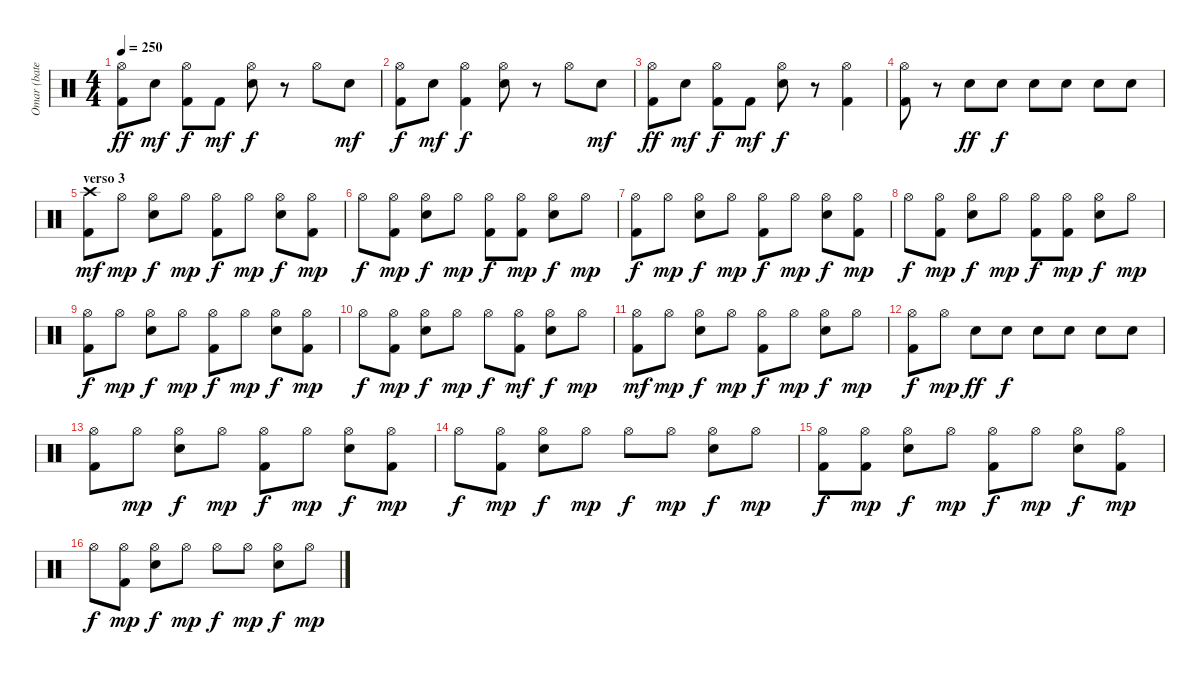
\track ("Omar (batería)" "Omar (bate") {instrument percussion}
\staff {score}
\articulation defaults
\ts (4 4)
\tempo 250
\clef neutral
\ks c
("Hi-Hat (open)" "Kick (hit) 2").8{dy ff} "Snare (hit) 2".8{dy mf} ("Hi-Hat (open)" "Kick (hit) 2").8{dy f} "Kick (hit) 2".8{dy mf} ("Hi-Hat (open)" "Snare (hit) 2").8{dy f} r.8 "Hi-Hat (open)".8 "Snare (hit) 2".8{dy mf} |
("Hi-Hat (open)" "Kick (hit) 2").8{dy f} "Snare (hit) 2".8{dy mf} ("Hi-Hat (open)" "Kick (hit) 2").4{dy f} ("Hi-Hat (open)" "Snare (hit) 2").8 r.8 "Hi-Hat (open)".8 "Snare (hit) 2".8{dy mf} |
("Hi-Hat (open)" "Kick (hit) 2").8{dy ff} "Snare (hit) 2".8{dy mf} ("Hi-Hat (open)" "Kick (hit) 2").8{dy f} "Kick (hit) 2".8{dy mf} ("Hi-Hat (open)" "Snare (hit) 2").8{dy f} r.8 ("Hi-Hat (open)" "Kick (hit) 2").4 |
("Hi-Hat (open)" "Kick (hit) 2").8 r.8 "Snare (hit) 2".8{dy ff} "Snare (hit) 2".8{dy f} "Snare (hit) 2".8 "Snare (hit) 2".8 "Snare (hit) 2".8 "Snare (hit) 2".8 |
\section ("" "verso 3")
("Crash high (hit)" "Kick (hit) 2").8{dy mf} "Hi-Hat (open)".8{dy mp} ("Hi-Hat (open)" "Snare (hit) 2").8{dy f} "Hi-Hat (open)".8{dy mp} ("Hi-Hat (open)" "Kick (hit) 2").8{dy f} "Hi-Hat (open)".8{dy mp} ("Hi-Hat (open)" "Snare (hit) 2").8{dy f} ("Hi-Hat (open)" "Kick (hit) 2").8{dy mp} |
"Hi-Hat (open)".8{dy f} ("Hi-Hat (open)" "Kick (hit) 2").8{dy mp} ("Hi-Hat (open)" "Snare (hit) 2").8{dy f} "Hi-Hat (open)".8{dy mp} ("Hi-Hat (open)" "Kick (hit) 2").8{dy f} ("Hi-Hat (open)" "Kick (hit) 2").8{dy mp} ("Hi-Hat (open)" "Snare (hit) 2").8{dy f} "Hi-Hat (open)".8{dy mp} |
("Hi-Hat (open)" "Kick (hit) 2").8{dy f} "Hi-Hat (open)".8{dy mp} ("Hi-Hat (open)" "Snare (hit) 2").8{dy f} "Hi-Hat (open)".8{dy mp} ("Hi-Hat (open)" "Kick (hit) 2").8{dy f} "Hi-Hat (open)".8{dy mp} ("Hi-Hat (open)" "Snare (hit) 2").8{dy f} ("Hi-Hat (open)" "Kick (hit) 2").8{dy mp} |
"Hi-Hat (open)".8{dy f} ("Hi-Hat (open)" "Kick (hit) 2").8{dy mp} ("Hi-Hat (open)" "Snare (hit) 2").8{dy f} "Hi-Hat (open)".8{dy mp} ("Hi-Hat (open)" "Kick (hit) 2").8{dy f} ("Hi-Hat (open)" "Kick (hit) 2").8{dy mp} ("Hi-Hat (open)" "Snare (hit) 2").8{dy f} "Hi-Hat (open)".8{dy mp} |
("Hi-Hat (open)" "Kick (hit) 2").8{dy f} "Hi-Hat (open)".8{dy mp} ("Hi-Hat (open)" "Snare (hit) 2").8{dy f} "Hi-Hat (open)".8{dy mp} ("Hi-Hat (open)" "Kick (hit) 2").8{dy f} "Hi-Hat (open)".8{dy mp} ("Hi-Hat (open)" "Snare (hit) 2").8{dy f} ("Hi-Hat (open)" "Kick (hit) 2").8{dy mp} |
"Hi-Hat (open)".8{dy f} ("Hi-Hat (open)" "Kick (hit) 2").8{dy mp} ("Hi-Hat (open)" "Snare (hit) 2").8{dy f} "Hi-Hat (open)".8{dy mp} "Hi-Hat (open)".8{dy f} ("Hi-Hat (open)" "Kick (hit) 2").8{dy mf} ("Hi-Hat (open)" "Snare (hit) 2").8{dy f} "Hi-Hat (open)".8{dy mp} |
("Hi-Hat (open)" "Kick (hit) 2").8{dy mf} "Hi-Hat (open)".8{dy mp} ("Hi-Hat (open)" "Snare (hit) 2").8{dy f} "Hi-Hat (open)".8{dy mp} ("Hi-Hat (open)" "Kick (hit) 2").8{dy f} "Hi-Hat (open)".8{dy mp} ("Hi-Hat (open)" "Snare (hit) 2").8{dy f} "Hi-Hat (open)".8{dy mp} |
("Hi-Hat (open)" "Kick (hit) 2").8{dy f} "Hi-Hat (open)".8{dy mp} "Snare (hit) 2".8{dy ff} "Snare (hit) 2".8{dy f} "Snare (hit) 2".8 "Snare (hit) 2".8 "Snare (hit) 2".8 "Snare (hit) 2".8 |
\section ("" "")
("Hi-Hat (open)" "Kick (hit) 2").8 "Hi-Hat (open)".8{dy mp} ("Hi-Hat (open)" "Snare (hit) 2").8{dy f} "Hi-Hat (open)".8{dy mp} ("Hi-Hat (open)" "Kick (hit) 2").8{dy f} "Hi-Hat (open)".8{dy mp} ("Hi-Hat (open)" "Snare (hit) 2").8{dy f} ("Hi-Hat (open)" "Kick (hit) 2").8{dy mp} |
"Hi-Hat (open)".8{dy f} ("Hi-Hat (open)" "Kick (hit) 2").8{dy mp} ("Hi-Hat (open)" "Snare (hit) 2").8{dy f} "Hi-Hat (open)".8{dy mp} "Hi-Hat (open)".8{dy f} "Hi-Hat (open)".8{dy mp} ("Hi-Hat (open)" "Snare (hit) 2").8{dy f} "Hi-Hat (open)".8{dy mp} |
("Hi-Hat (open)" "Kick (hit) 2").8{dy f} ("Hi-Hat (open)" "Kick (hit) 2").8{dy mp} ("Hi-Hat (open)" "Snare (hit) 2").8{dy f} "Hi-Hat (open)".8{dy mp} ("Hi-Hat (open)" "Kick (hit) 2").8{dy f} "Hi-Hat (open)".8{dy mp} ("Hi-Hat (open)" "Snare (hit) 2").8{dy f} ("Hi-Hat (open)" "Kick (hit) 2").8{dy mp} |
"Hi-Hat (open)".8{dy f} ("Hi-Hat (open)" "Kick (hit) 2").8{dy mp} ("Hi-Hat (open)" "Snare (hit) 2").8{dy f} "Hi-Hat (open)".8{dy mp} "Hi-Hat (open)".8{dy f} "Hi-Hat (open)".8{dy mp} ("Hi-Hat (open)" "Snare (hit) 2").8{dy f} "Hi-Hat (open)".8{dy mp}
